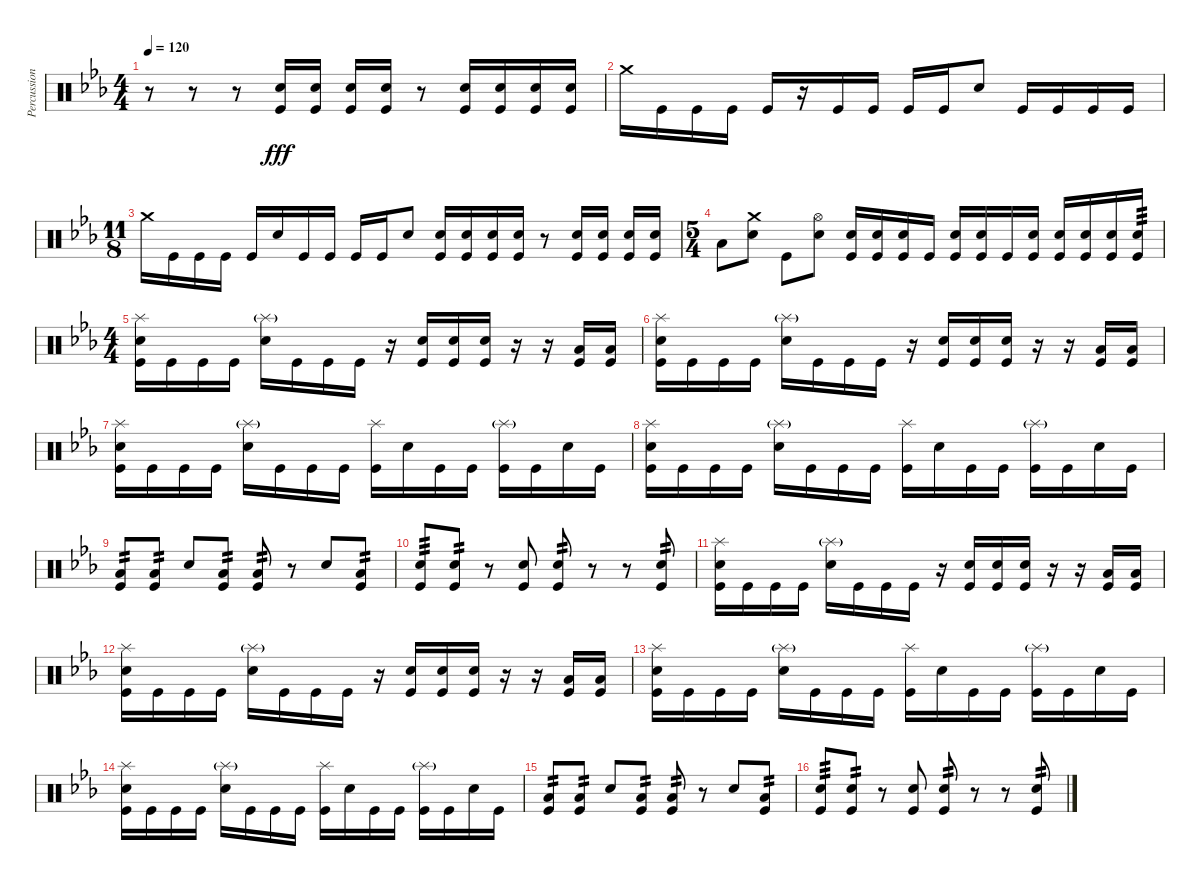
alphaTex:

\track ("Percussion" "Percussion") {instrument percussion}
\staff {score}
\articulation defaults
\ts (4 4)
\tempo 120
\clef neutral
\ks cminor
r.8{dy fff} r.8 r.8 ("Snare (hit) 2" "Kick (hit)").16 ("Snare (hit) 2" "Kick (hit)").16 ("Snare (hit) 2" "Kick (hit)").16 ("Snare (hit) 2" "Kick (hit)").16 r.8 ("Snare (hit) 2" "Kick (hit)").16 ("Snare (hit) 2" "Kick (hit)").16 ("Snare (hit) 2" "Kick (hit)").16 ("Snare (hit) 2" "Kick (hit)").16 |
"Crash medium (hit)".16 "Kick (hit)".16 "Kick (hit)".16 "Kick (hit)".16 "Kick (hit)".16 r.16 "Kick (hit)".16 "Kick (hit)".16 "Kick (hit)".16 "Kick (hit)".16 "Snare (hit) 2".8 "Kick (hit)".16 "Kick (hit)".16 "Kick (hit)".16 "Kick (hit)".16 |
\ts (11 8)
"Crash medium (hit)".16 "Kick (hit)".16 "Kick (hit)".16 "Kick (hit)".16 "Kick (hit)".16 "Snare (hit) 2".16 "Kick (hit)".16 "Kick (hit)".16 "Kick (hit)".16 "Kick (hit)".16 "Snare (hit) 2".8 ("Snare (hit) 2" "Kick (hit)").16 ("Snare (hit) 2" "Kick (hit)").16 ("Snare (hit) 2" "Kick (hit)").16 ("Snare (hit) 2" "Kick (hit)").16 r.8 ("Snare (hit) 2" "Kick (hit)").16 ("Snare (hit) 2" "Kick (hit)").16 ("Snare (hit) 2" "Kick (hit)").16 ("Snare (hit) 2" "Kick (hit)").16 |
\ts (5 4)
"Low Floor Tom (hit)".8 ("Crash medium (hit)" "Snare (hit) 2").8 "Kick (hit)".8 ("Hi-Hat (open)" "Snare (hit) 2").8 ("Snare (hit) 2" "Kick (hit)").16 ("Snare (hit) 2" "Kick (hit)").16 ("Snare (hit) 2" "Kick (hit)").16 "Kick (hit)".16 ("Snare (hit) 2" "Kick (hit)").16 ("Snare (hit) 2" "Kick (hit)").16 "Kick (hit)".16 ("Snare (hit) 2" "Kick (hit)").16 ("Snare (hit) 2" "Kick (hit)").16 ("Snare (hit) 2" "Kick (hit)").16 ("Snare (hit) 2" "Kick (hit)").16 ("Snare (hit) 2" "Kick (hit)").16{tp 3} |
\ts (4 4)
("Splash (hit)" "Snare (hit) 2" "Kick (hit)").16 "Kick (hit)".16 "Kick (hit)".16 "Kick (hit)".16 ("Splash (hit)"{g} "Snare (hit) 2").16 "Kick (hit)".16 "Kick (hit)".16 "Kick (hit)".16 r.16 ("Snare (hit) 2" "Kick (hit)").16 ("Snare (hit) 2" "Kick (hit)").16 ("Snare (hit) 2" "Kick (hit)").16 r.16 r.16 ("Kick (hit)" "Low Floor Tom (hit)").16 ("Kick (hit)" "Low Floor Tom (hit)").16 |
("Splash (hit)" "Snare (hit) 2" "Kick (hit)").16 "Kick (hit)".16 "Kick (hit)".16 "Kick (hit)".16 ("Splash (hit)"{g} "Snare (hit) 2").16 "Kick (hit)".16 "Kick (hit)".16 "Kick (hit)".16 r.16 ("Snare (hit) 2" "Kick (hit)").16 ("Snare (hit) 2" "Kick (hit)").16 ("Snare (hit) 2" "Kick (hit)").16 r.16 r.16 ("Kick (hit)" "Low Floor Tom (hit)").16 ("Kick (hit)" "Low Floor Tom (hit)").16 |
("Splash (hit)" "Snare (hit) 2" "Kick (hit)").16 "Kick (hit)".16 "Kick (hit)".16 "Kick (hit)".16 ("Splash (hit)"{g} "Snare (hit) 2").16 "Kick (hit)".16 "Kick (hit)".16 "Kick (hit)".16 ("Splash (hit)" "Kick (hit)").16 "Snare (hit) 2".16 "Kick (hit)".16 "Kick (hit)".16 ("Splash (hit)"{g} "Kick (hit)").16 "Kick (hit)".16 "Snare (hit) 2".16 "Kick (hit)".16 |
("Splash (hit)" "Snare (hit) 2" "Kick (hit)").16 "Kick (hit)".16 "Kick (hit)".16 "Kick (hit)".16 ("Splash (hit)"{g} "Snare (hit) 2").16 "Kick (hit)".16 "Kick (hit)".16 "Kick (hit)".16 ("Splash (hit)" "Kick (hit)").16 "Snare (hit) 2".16 "Kick (hit)".16 "Kick (hit)".16 ("Splash (hit)"{g} "Kick (hit)").16 "Kick (hit)".16 "Snare (hit) 2".16 "Kick (hit)".16 |
("Low Floor Tom (hit)" "Kick (hit)").8{tp 2} ("Low Floor Tom (hit)" "Kick (hit)").8{tp 2} "Snare (hit) 2".8 ("Low Floor Tom (hit)" "Kick (hit)").8{tp 2} ("Low Floor Tom (hit)" "Kick (hit)").8{tp 2} r.8 "Snare (hit) 2".8 ("Low Floor Tom (hit)" "Kick (hit)").8{tp 2} |
("Snare (hit) 2" "Kick (hit)").8{tp 3} ("Snare (hit) 2" "Kick (hit)").8{tp 2} r.8 ("Snare (hit) 2" "Kick (hit)").8 ("Snare (hit) 2" "Kick (hit)").8{tp 2} r.8 r.8 ("Snare (hit) 2" "Kick (hit)").8{tp 2} |
("Splash (hit)" "Snare (hit) 2" "Kick (hit)").16 "Kick (hit)".16 "Kick (hit)".16 "Kick (hit)".16 ("Splash (hit)"{g} "Snare (hit) 2").16 "Kick (hit)".16 "Kick (hit)".16 "Kick (hit)".16 r.16 ("Snare (hit) 2" "Kick (hit)").16 ("Snare (hit) 2" "Kick (hit)").16 ("Snare (hit) 2" "Kick (hit)").16 r.16 r.16 ("Kick (hit)" "Low Floor Tom (hit)").16 ("Kick (hit)" "Low Floor Tom (hit)").16 |
("Splash (hit)" "Snare (hit) 2" "Kick (hit)").16 "Kick (hit)".16 "Kick (hit)".16 "Kick (hit)".16 ("Splash (hit)"{g} "Snare (hit) 2").16 "Kick (hit)".16 "Kick (hit)".16 "Kick (hit)".16 r.16 ("Snare (hit) 2" "Kick (hit)").16 ("Snare (hit) 2" "Kick (hit)").16 ("Snare (hit) 2" "Kick (hit)").16 r.16 r.16 ("Kick (hit)" "Low Floor Tom (hit)").16 ("Kick (hit)" "Low Floor Tom (hit)").16 |
("Splash (hit)" "Snare (hit) 2" "Kick (hit)").16 "Kick (hit)".16 "Kick (hit)".16 "Kick (hit)".16 ("Splash (hit)"{g} "Snare (hit) 2").16 "Kick (hit)".16 "Kick (hit)".16 "Kick (hit)".16 ("Splash (hit)" "Kick (hit)").16 "Snare (hit) 2".16 "Kick (hit)".16 "Kick (hit)".16 ("Splash (hit)"{g} "Kick (hit)").16 "Kick (hit)".16 "Snare (hit) 2".16 "Kick (hit)".16 |
("Splash (hit)" "Snare (hit) 2" "Kick (hit)").16 "Kick (hit)".16 "Kick (hit)".16 "Kick (hit)".16 ("Splash (hit)"{g} "Snare (hit) 2").16 "Kick (hit)".16 "Kick (hit)".16 "Kick (hit)".16 ("Splash (hit)" "Kick (hit)").16 "Snare (hit) 2".16 "Kick (hit)".16 "Kick (hit)".16 ("Splash (hit)"{g} "Kick (hit)").16 "Kick (hit)".16 "Snare (hit) 2".16 "Kick (hit)".16 |
("Low Floor Tom (hit)" "Kick (hit)").8{tp 2} ("Low Floor Tom (hit)" "Kick (hit)").8{tp 2} "Snare (hit) 2".8 ("Low Floor Tom (hit)" "Kick (hit)").8{tp 2} ("Low Floor Tom (hit)" "Kick (hit)").8{tp 2} r.8 "Snare (hit) 2".8 ("Low Floor Tom (hit)" "Kick (hit)").8{tp 2} |
("Snare (hit) 2" "Kick (hit)").8{tp 3} ("Snare (hit) 2" "Kick (hit)").8{tp 2} r.8 ("Snare (hit) 2" "Kick (hit)").8 ("Snare (hit) 2" "Kick (hit)").8{tp 2} r.8 r.8 ("Snare (hit) 2" "Kick (hit)").8{tp 2}
